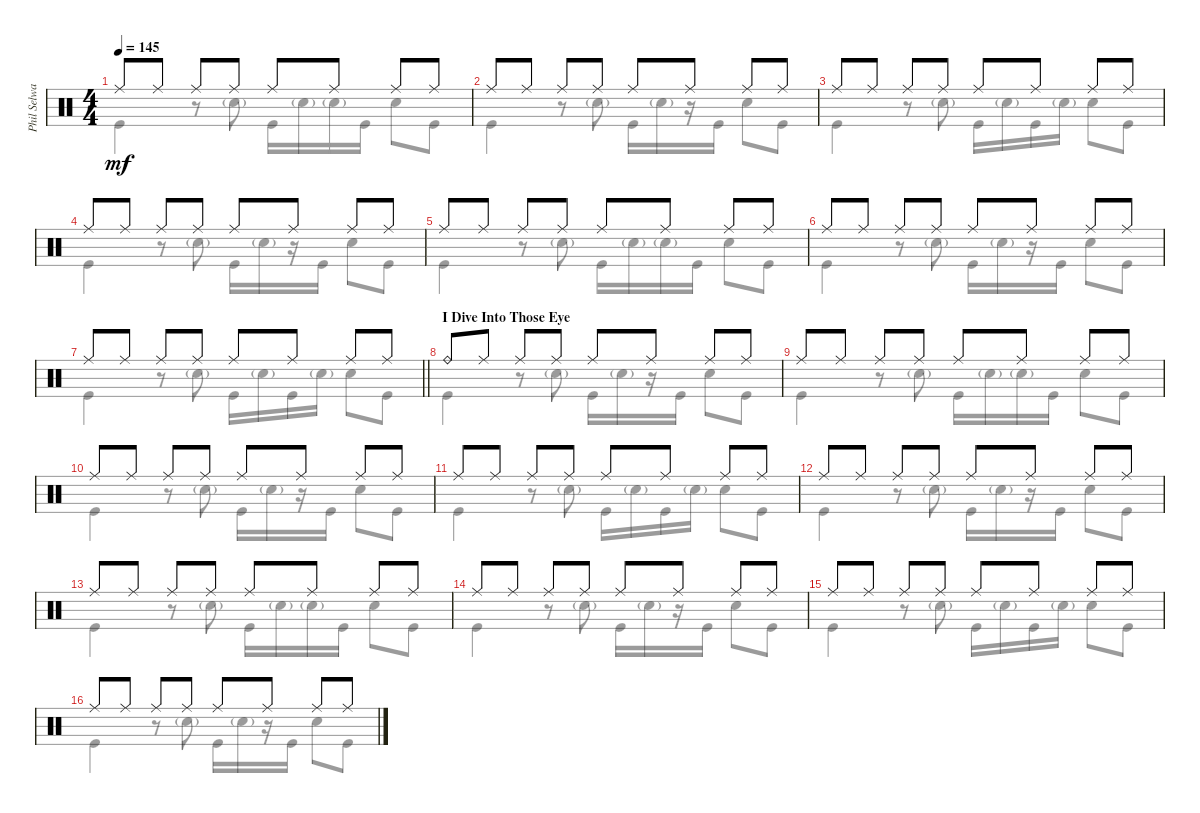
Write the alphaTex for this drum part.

\track ("Phil Selway" "Phil Selwa") {instrument percussion}
\staff {score}
\articulation defaults
\voice
\ts (4 4)
\tempo 145
\clef neutral
\ks c "Ride (middle)".8{dy mf} "Ride (middle)".8 "Ride (middle)".8 "Ride (middle)".8 "Ride (middle)".8 "Ride (middle)".8 "Ride (middle)".8 "Ride (middle)".8
|
"Ride (middle)".8 "Ride (middle)".8 "Ride (middle)".8 "Ride (middle)".8 "Ride (middle)".8 "Ride (middle)".8 "Ride (middle)".8 "Ride (middle)".8 |
"Ride (middle)".8 "Ride (middle)".8 "Ride (middle)".8 "Ride (middle)".8 "Ride (middle)".8 "Ride (middle)".8 "Ride (middle)".8 "Ride (middle)".8 |
"Ride (middle)".8 "Ride (middle)".8 "Ride (middle)".8 "Ride (middle)".8 "Ride (middle)".8 "Ride (middle)".8 "Ride (middle)".8 "Ride (middle)".8 |
"Ride (middle)".8 "Ride (middle)".8 "Ride (middle)".8 "Ride (middle)".8 "Ride (middle)".8 "Ride (middle)".8 "Ride (middle)".8 "Ride (middle)".8 |
"Ride (middle)".8 "Ride (middle)".8 "Ride (middle)".8 "Ride (middle)".8 "Ride (middle)".8 "Ride (middle)".8 "Ride (middle)".8 "Ride (middle)".8 |
\barLineRight lightlight "Ride (middle)".8 "Ride (middle)".8 "Ride (middle)".8 "Ride (middle)".8 "Ride (middle)".8 "Ride (middle)".8 "Ride (middle)".8 "Ride (middle)".8
|
\section ("" "I Dive Into Those Eye")
"Ride (bell)".8 "Ride (middle)".8 "Ride (middle)".8 "Ride (middle)".8 "Ride (middle)".8 "Ride (middle)".8 "Ride (middle)".8 "Ride (middle)".8 |
"Ride (middle)".8 "Ride (middle)".8 "Ride (middle)".8 "Ride (middle)".8 "Ride (middle)".8 "Ride (middle)".8 "Ride (middle)".8 "Ride (middle)".8 |
"Ride (middle)".8 "Ride (middle)".8 "Ride (middle)".8 "Ride (middle)".8 "Ride (middle)".8 "Ride (middle)".8 "Ride (middle)".8 "Ride (middle)".8 |
"Ride (middle)".8 "Ride (middle)".8 "Ride (middle)".8 "Ride (middle)".8 "Ride (middle)".8 "Ride (middle)".8 "Ride (middle)".8 "Ride (middle)".8 |
"Ride (middle)".8 "Ride (middle)".8 "Ride (middle)".8 "Ride (middle)".8 "Ride (middle)".8 "Ride (middle)".8 "Ride (middle)".8 "Ride (middle)".8 |
"Ride (middle)".8 "Ride (middle)".8 "Ride (middle)".8 "Ride (middle)".8 "Ride (middle)".8 "Ride (middle)".8 "Ride (middle)".8 "Ride (middle)".8 |
"Ride (middle)".8 "Ride (middle)".8 "Ride (middle)".8 "Ride (middle)".8 "Ride (middle)".8 "Ride (middle)".8 "Ride (middle)".8 "Ride (middle)".8 |
"Ride (middle)".8 "Ride (middle)".8 "Ride (middle)".8 "Ride (middle)".8 "Ride (middle)".8 "Ride (middle)".8 "Ride (middle)".8 "Ride (middle)".8 |
"Ride (middle)".8 "Ride (middle)".8 "Ride (middle)".8 "Ride (middle)".8 "Ride (middle)".8 "Ride (middle)".8 "Ride (middle)".8 "Ride (middle)".8
\voice
\clef neutral
\ottava regular
\simile none
\ks c "Kick (hit)".4{dy mf}
r.8 "Snare (hit) 2"{g}.8 "Kick (hit)".16 "Snare (hit) 2"{g}.16 "Snare (hit) 2"{g}.16 "Kick (hit)".16 "Snare (hit) 2".8 "Kick (hit)".8 |
"Kick (hit)".4 r.8 "Snare (hit) 2"{g}.8 "Kick (hit)".16 "Snare (hit) 2"{g}.16 r.16 "Kick (hit)".16 "Snare (hit) 2".8 "Kick (hit)".8 |
"Kick (hit)".4 r.8 "Snare (hit) 2"{g}.8 "Kick (hit)".16 "Snare (hit) 2"{g}.16 "Kick (hit)".16 "Snare (hit) 2"{g}.16 "Snare (hit) 2".8 "Kick (hit)".8 |
"Kick (hit)".4 r.8 "Snare (hit) 2"{g}.8 "Kick (hit)".16 "Snare (hit) 2"{g}.16 r.16 "Kick (hit)".16 "Snare (hit) 2".8 "Kick (hit)".8 |
"Kick (hit)".4 r.8 "Snare (hit) 2"{g}.8 "Kick (hit)".16 "Snare (hit) 2"{g}.16 "Snare (hit) 2"{g}.16 "Kick (hit)".16 "Snare (hit) 2".8 "Kick (hit)".8 |
"Kick (hit)".4 r.8 "Snare (hit) 2"{g}.8 "Kick (hit)".16 "Snare (hit) 2"{g}.16 r.16 "Kick (hit)".16 "Snare (hit) 2".8 "Kick (hit)".8 |
\barLineRight lightlight "Kick (hit)".4
r.8 "Snare (hit) 2"{g}.8 "Kick (hit)".16 "Snare (hit) 2"{g}.16 "Kick (hit)".16 "Snare (hit) 2"{g}.16 "Snare (hit) 2".8 "Kick (hit)".8 |
"Kick (hit)".4 r.8 "Snare (hit) 2"{g}.8 "Kick (hit)".16 "Snare (hit) 2"{g}.16 r.16 "Kick (hit)".16 "Snare (hit) 2".8 "Kick (hit)".8 |
"Kick (hit)".4 r.8 "Snare (hit) 2"{g}.8 "Kick (hit)".16 "Snare (hit) 2"{g}.16 "Snare (hit) 2"{g}.16 "Kick (hit)".16 "Snare (hit) 2".8 "Kick (hit)".8 |
"Kick (hit)".4 r.8 "Snare (hit) 2"{g}.8 "Kick (hit)".16 "Snare (hit) 2"{g}.16 r.16 "Kick (hit)".16 "Snare (hit) 2".8 "Kick (hit)".8 |
"Kick (hit)".4 r.8 "Snare (hit) 2"{g}.8 "Kick (hit)".16 "Snare (hit) 2"{g}.16 "Kick (hit)".16 "Snare (hit) 2"{g}.16 "Snare (hit) 2".8 "Kick (hit)".8 |
"Kick (hit)".4 r.8 "Snare (hit) 2"{g}.8 "Kick (hit)".16 "Snare (hit) 2"{g}.16 r.16 "Kick (hit)".16 "Snare (hit) 2".8 "Kick (hit)".8 |
"Kick (hit)".4 r.8 "Snare (hit) 2"{g}.8 "Kick (hit)".16 "Snare (hit) 2"{g}.16 "Snare (hit) 2"{g}.16 "Kick (hit)".16 "Snare (hit) 2".8 "Kick (hit)".8 |
"Kick (hit)".4 r.8 "Snare (hit) 2"{g}.8 "Kick (hit)".16 "Snare (hit) 2"{g}.16 r.16 "Kick (hit)".16 "Snare (hit) 2".8 "Kick (hit)".8 |
"Kick (hit)".4 r.8 "Snare (hit) 2"{g}.8 "Kick (hit)".16 "Snare (hit) 2"{g}.16 "Kick (hit)".16 "Snare (hit) 2"{g}.16 "Snare (hit) 2".8 "Kick (hit)".8 |
"Kick (hit)".4 r.8 "Snare (hit) 2"{g}.8 "Kick (hit)".16 "Snare (hit) 2"{g}.16 r.16 "Kick (hit)".16 "Snare (hit) 2".8 "Kick (hit)".8
